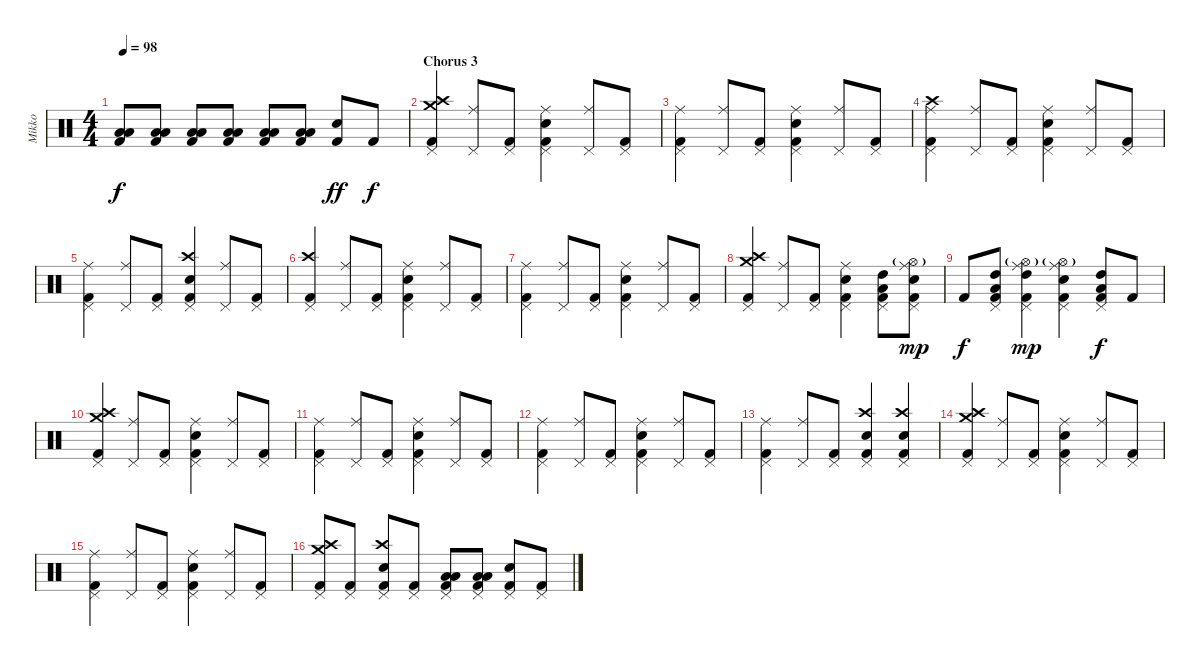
\track ("Mikko" "Mikko") {instrument percussion}
\staff {score}
\articulation defaults
\ts (4 4)
\tempo 98
\clef neutral
\ks c
("Low Tom (hit)" "Low Floor Tom (hit)" "Kick (hit) 2").8{dy f} ("Low Tom (hit)" "Low Floor Tom (hit)" "Kick (hit) 2").8 ("Low Tom (hit)" "Low Floor Tom (hit)" "Kick (hit) 2").8 ("Low Tom (hit)" "Low Floor Tom (hit)" "Kick (hit) 2").8 ("Low Tom (hit)" "Low Floor Tom (hit)" "Kick (hit) 2").8 ("Low Tom (hit)" "Low Floor Tom (hit)" "Kick (hit) 2").8 ("Electric Snare (hit)" "Kick (hit) 2").8{dy ff} "Kick (hit) 2".8{dy f} |
\section ("" "Chorus 3")
("Crash high (hit)" "Crash medium (hit)" "Pedal Hi-Hat (hit)" "Kick (hit) 2").4 ("Ride (middle)" "Pedal Hi-Hat (hit)").8 ("Pedal Hi-Hat (hit)" "Kick (hit) 2").8 ("Ride (middle)" "Electric Snare (hit)" "Pedal Hi-Hat (hit)" "Kick (hit) 2").4 ("Ride (middle)" "Pedal Hi-Hat (hit)").8 ("Pedal Hi-Hat (hit)" "Kick (hit) 2").8 |
("Ride (middle)" "Pedal Hi-Hat (hit)" "Kick (hit) 2").4 ("Ride (middle)" "Pedal Hi-Hat (hit)").8 ("Pedal Hi-Hat (hit)" "Kick (hit) 2").8 ("Ride (middle)" "Electric Snare (hit)" "Pedal Hi-Hat (hit)" "Kick (hit) 2").4 ("Ride (middle)" "Pedal Hi-Hat (hit)").8 ("Pedal Hi-Hat (hit)" "Kick (hit) 2").8 |
("Crash high (hit)" "Ride (middle)" "Pedal Hi-Hat (hit)" "Kick (hit) 2").4 ("Ride (middle)" "Pedal Hi-Hat (hit)").8 ("Pedal Hi-Hat (hit)" "Kick (hit) 2").8 ("Ride (middle)" "Electric Snare (hit)" "Pedal Hi-Hat (hit)" "Kick (hit) 2").4 ("Ride (middle)" "Pedal Hi-Hat (hit)").8 ("Pedal Hi-Hat (hit)" "Kick (hit) 2").8 |
("Ride (middle)" "Pedal Hi-Hat (hit)" "Kick (hit) 2").4 ("Ride (middle)" "Pedal Hi-Hat (hit)").8 ("Pedal Hi-Hat (hit)" "Kick (hit) 2").8 ("Crash high (hit)" "Electric Snare (hit)" "Pedal Hi-Hat (hit)" "Kick (hit) 2").4 ("Ride (middle)" "Pedal Hi-Hat (hit)").8 ("Kick (hit) 2" "Pedal Hi-Hat (hit)").8 |
("Crash high (hit)" "Pedal Hi-Hat (hit)" "Kick (hit) 2").4 ("Ride (middle)" "Pedal Hi-Hat (hit)").8 ("Pedal Hi-Hat (hit)" "Kick (hit) 2").8 ("Ride (middle)" "Electric Snare (hit)" "Pedal Hi-Hat (hit)" "Kick (hit) 2").4 ("Ride (middle)" "Pedal Hi-Hat (hit)").8 ("Pedal Hi-Hat (hit)" "Kick (hit) 2").8 |
("Ride (middle)" "Pedal Hi-Hat (hit)" "Kick (hit) 2").4 ("Ride (middle)" "Pedal Hi-Hat (hit)").8 ("Pedal Hi-Hat (hit)" "Kick (hit) 2").8 ("Ride (middle)" "Electric Snare (hit)" "Pedal Hi-Hat (hit)" "Kick (hit) 2").4 ("Ride (middle)" "Pedal Hi-Hat (hit)").8 ("Pedal Hi-Hat (hit)" "Kick (hit) 2").8 |
("Crash high (hit)" "Crash medium (hit)" "Pedal Hi-Hat (hit)" "Kick (hit) 2").4 ("Ride (middle)" "Pedal Hi-Hat (hit)").8 ("Pedal Hi-Hat (hit)" "Kick (hit) 2").8 ("Ride (middle)" "Electric Snare (hit)" "Pedal Hi-Hat (hit)" "Kick (hit) 2").4 ("Pedal Hi-Hat (hit)" "High Tom (hit)" "Low Floor Tom (hit)" "Kick (hit) 2").8 ("Ride (middle)" "Hi-Hat (open)"{g} "Electric Snare (hit)" "Pedal Hi-Hat (hit)" "Kick (hit) 2").8{dy mp} |
"Kick (hit) 2".8{dy f} ("High Tom (hit)" "Low Floor Tom (hit)" "Pedal Hi-Hat (hit)" "Kick (hit) 2").8 ("Ride (middle)" "Hi-Hat (open)"{g} "High Tom (hit)" "Pedal Hi-Hat (hit)" "Kick (hit) 2").4{dy mp} ("Ride (middle)" "Hi-Hat (open)"{g} "Electric Snare (hit)" "Pedal Hi-Hat (hit)" "Kick (hit) 2").4 ("High Tom (hit)" "Low Floor Tom (hit)" "Pedal Hi-Hat (hit)" "Kick (hit) 2").8{dy f} "Kick (hit) 2".8 |
("Crash high (hit)" "Crash medium (hit)" "Pedal Hi-Hat (hit)" "Kick (hit) 2").4 ("Ride (middle)" "Pedal Hi-Hat (hit)").8 ("Pedal Hi-Hat (hit)" "Kick (hit) 2").8 ("Ride (middle)" "Electric Snare (hit)" "Pedal Hi-Hat (hit)" "Kick (hit) 2").4 ("Ride (middle)" "Pedal Hi-Hat (hit)").8 ("Pedal Hi-Hat (hit)" "Kick (hit) 2").8 |
("Ride (middle)" "Pedal Hi-Hat (hit)" "Kick (hit) 2").4 ("Ride (middle)" "Pedal Hi-Hat (hit)").8 ("Pedal Hi-Hat (hit)" "Kick (hit) 2").8 ("Ride (middle)" "Electric Snare (hit)" "Pedal Hi-Hat (hit)" "Kick (hit) 2").4 ("Ride (middle)" "Pedal Hi-Hat (hit)").8 ("Kick (hit) 2" "Pedal Hi-Hat (hit)").8 |
("Ride (middle)" "Pedal Hi-Hat (hit)" "Kick (hit) 2").4 ("Ride (middle)" "Pedal Hi-Hat (hit)").8 ("Pedal Hi-Hat (hit)" "Kick (hit) 2").8 ("Ride (middle)" "Electric Snare (hit)" "Pedal Hi-Hat (hit)" "Kick (hit) 2").4 ("Ride (middle)" "Pedal Hi-Hat (hit)").8 ("Pedal Hi-Hat (hit)" "Kick (hit) 2").8 |
("Ride (middle)" "Pedal Hi-Hat (hit)" "Kick (hit) 2").4 ("Ride (middle)" "Pedal Hi-Hat (hit)").8 ("Pedal Hi-Hat (hit)" "Kick (hit) 2").8 ("Crash high (hit)" "Electric Snare (hit)" "Pedal Hi-Hat (hit)" "Kick (hit) 2").4 ("Crash high (hit)" "Electric Snare (hit)" "Pedal Hi-Hat (hit)" "Kick (hit) 2").4 |
("Crash high (hit)" "Crash medium (hit)" "Pedal Hi-Hat (hit)" "Kick (hit) 2").4 ("Ride (middle)" "Pedal Hi-Hat (hit)").8 ("Pedal Hi-Hat (hit)" "Kick (hit) 2").8 ("Ride (middle)" "Electric Snare (hit)" "Pedal Hi-Hat (hit)" "Kick (hit) 2").4 ("Ride (middle)" "Pedal Hi-Hat (hit)").8 ("Pedal Hi-Hat (hit)" "Kick (hit) 2").8 |
("Ride (middle)" "Pedal Hi-Hat (hit)" "Kick (hit) 2").4 ("Ride (middle)" "Pedal Hi-Hat (hit)").8 ("Pedal Hi-Hat (hit)" "Kick (hit) 2").8 ("Ride (middle)" "Electric Snare (hit)" "Pedal Hi-Hat (hit)" "Kick (hit) 2").4 ("Ride (middle)" "Pedal Hi-Hat (hit)").8 ("Pedal Hi-Hat (hit)" "Kick (hit) 2").8 |
("Crash high (hit)" "Crash medium (hit)" "Pedal Hi-Hat (hit)" "Kick (hit) 2").8 ("Pedal Hi-Hat (hit)" "Kick (hit) 2").8 ("Crash high (hit)" "Pedal Hi-Hat (hit)" "Electric Snare (hit)" "Kick (hit) 2").8 ("Pedal Hi-Hat (hit)" "Kick (hit) 2").8 ("Pedal Hi-Hat (hit)" "Low Tom (hit)" "Low Floor Tom (hit)" "Kick (hit) 2").8 ("Pedal Hi-Hat (hit)" "Low Tom (hit)" "Low Floor Tom (hit)" "Kick (hit) 2").8 ("Pedal Hi-Hat (hit)" "Electric Snare (hit)" "Kick (hit) 2").8 ("Pedal Hi-Hat (hit)" "Kick (hit) 2").8
